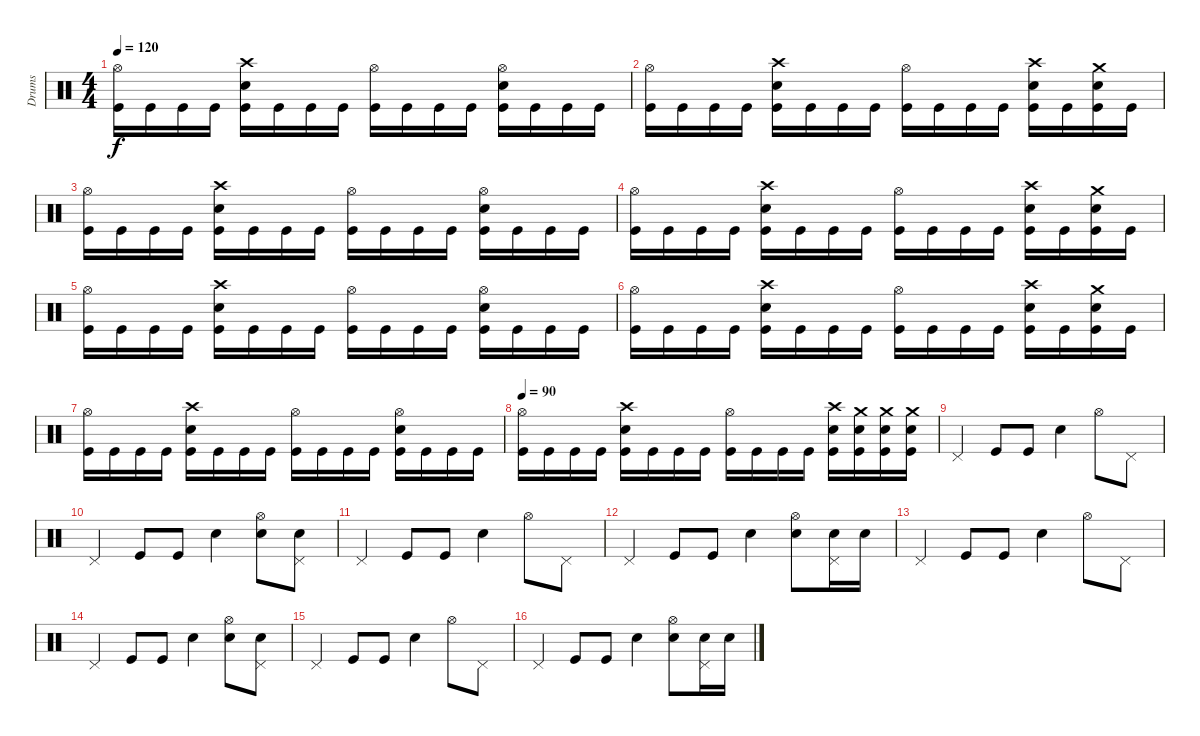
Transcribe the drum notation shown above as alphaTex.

\track ("Drums" "Drums") {instrument percussion}
\staff {score}
\articulation defaults
\ts (4 4)
\tempo 120
\clef neutral
\ks c
("Hi-Hat (open)" "Kick (hit)").16{dy f} "Kick (hit)".16 "Kick (hit)".16 "Kick (hit)".16 ("Electric Snare (hit)" "Crash high (hit)" "Kick (hit)").16 "Kick (hit)".16 "Kick (hit)".16 "Kick (hit)".16 ("Hi-Hat (open)" "Kick (hit)").16 "Kick (hit)".16 "Kick (hit)".16 "Kick (hit)".16 ("Hi-Hat (open)" "Electric Snare (hit)" "Kick (hit)").16 "Kick (hit)".16 "Kick (hit)".16 "Kick (hit)".16 |
("Hi-Hat (open)" "Kick (hit)").16 "Kick (hit)".16 "Kick (hit)".16 "Kick (hit)".16 ("Electric Snare (hit)" "Crash high (hit)" "Kick (hit)").16 "Kick (hit)".16 "Kick (hit)".16 "Kick (hit)".16 ("Hi-Hat (open)" "Kick (hit)").16 "Kick (hit)".16 "Kick (hit)".16 "Kick (hit)".16 ("Electric Snare (hit)" "Crash high (hit)" "Kick (hit)").16 "Kick (hit)".16 ("Electric Snare (hit)" "Crash medium (hit)" "Kick (hit)").16 "Kick (hit)".16 |
("Hi-Hat (open)" "Kick (hit)").16 "Kick (hit)".16 "Kick (hit)".16 "Kick (hit)".16 ("Electric Snare (hit)" "Crash high (hit)" "Kick (hit)").16 "Kick (hit)".16 "Kick (hit)".16 "Kick (hit)".16 ("Hi-Hat (open)" "Kick (hit)").16 "Kick (hit)".16 "Kick (hit)".16 "Kick (hit)".16 ("Hi-Hat (open)" "Electric Snare (hit)" "Kick (hit)").16 "Kick (hit)".16 "Kick (hit)".16 "Kick (hit)".16 |
("Hi-Hat (open)" "Kick (hit)").16 "Kick (hit)".16 "Kick (hit)".16 "Kick (hit)".16 ("Electric Snare (hit)" "Crash high (hit)" "Kick (hit)").16 "Kick (hit)".16 "Kick (hit)".16 "Kick (hit)".16 ("Hi-Hat (open)" "Kick (hit)").16 "Kick (hit)".16 "Kick (hit)".16 "Kick (hit)".16 ("Electric Snare (hit)" "Crash high (hit)" "Kick (hit)").16 "Kick (hit)".16 ("Electric Snare (hit)" "Crash medium (hit)" "Kick (hit)").16 "Kick (hit)".16 |
("Hi-Hat (open)" "Kick (hit)").16 "Kick (hit)".16 "Kick (hit)".16 "Kick (hit)".16 ("Electric Snare (hit)" "Crash high (hit)" "Kick (hit)").16 "Kick (hit)".16 "Kick (hit)".16 "Kick (hit)".16 ("Hi-Hat (open)" "Kick (hit)").16 "Kick (hit)".16 "Kick (hit)".16 "Kick (hit)".16 ("Hi-Hat (open)" "Electric Snare (hit)" "Kick (hit)").16 "Kick (hit)".16 "Kick (hit)".16 "Kick (hit)".16 |
("Hi-Hat (open)" "Kick (hit)").16 "Kick (hit)".16 "Kick (hit)".16 "Kick (hit)".16 ("Electric Snare (hit)" "Crash high (hit)" "Kick (hit)").16 "Kick (hit)".16 "Kick (hit)".16 "Kick (hit)".16 ("Hi-Hat (open)" "Kick (hit)").16 "Kick (hit)".16 "Kick (hit)".16 "Kick (hit)".16 ("Electric Snare (hit)" "Crash high (hit)" "Kick (hit)").16 "Kick (hit)".16 ("Electric Snare (hit)" "Crash medium (hit)" "Kick (hit)").16 "Kick (hit)".16 |
("Hi-Hat (open)" "Kick (hit)").16 "Kick (hit)".16 "Kick (hit)".16 "Kick (hit)".16 ("Electric Snare (hit)" "Crash high (hit)" "Kick (hit)").16 "Kick (hit)".16 "Kick (hit)".16 "Kick (hit)".16 ("Hi-Hat (open)" "Kick (hit)").16 "Kick (hit)".16 "Kick (hit)".16 "Kick (hit)".16 ("Hi-Hat (open)" "Electric Snare (hit)" "Kick (hit)").16 "Kick (hit)".16 "Kick (hit)".16 "Kick (hit)".16 |
\tempo 90
("Hi-Hat (open)" "Kick (hit)").16 "Kick (hit)".16 "Kick (hit)".16 "Kick (hit)".16 ("Electric Snare (hit)" "Crash high (hit)" "Kick (hit)").16 "Kick (hit)".16 "Kick (hit)".16 "Kick (hit)".16 ("Hi-Hat (open)" "Kick (hit)").16 "Kick (hit)".16 "Kick (hit)".16 "Kick (hit)".16 ("Electric Snare (hit)" "Crash high (hit)" "Kick (hit)").16 ("Electric Snare (hit)" "Crash medium (hit)" "Kick (hit)").16 ("Electric Snare (hit)" "Crash medium (hit)" "Kick (hit)").16 ("Electric Snare (hit)" "Crash medium (hit)" "Kick (hit)").16 |
"Pedal Hi-Hat (hit)".4 "Kick (hit)".8 "Kick (hit)".8 "Electric Snare (hit)".4 "Hi-Hat (open)".8 "Pedal Hi-Hat (hit)".8 |
"Pedal Hi-Hat (hit)".4 "Kick (hit)".8 "Kick (hit)".8 "Electric Snare (hit)".4 ("Hi-Hat (open)" "Electric Snare (hit)").8 ("Pedal Hi-Hat (hit)" "Electric Snare (hit)").8 |
"Pedal Hi-Hat (hit)".4 "Kick (hit)".8 "Kick (hit)".8 "Electric Snare (hit)".4 "Hi-Hat (open)".8 "Pedal Hi-Hat (hit)".8 |
"Pedal Hi-Hat (hit)".4 "Kick (hit)".8 "Kick (hit)".8 "Electric Snare (hit)".4 ("Hi-Hat (open)" "Electric Snare (hit)").8 ("Pedal Hi-Hat (hit)" "Electric Snare (hit)").16 "Electric Snare (hit)".16 |
"Pedal Hi-Hat (hit)".4 "Kick (hit)".8 "Kick (hit)".8 "Electric Snare (hit)".4 "Hi-Hat (open)".8 "Pedal Hi-Hat (hit)".8 |
"Pedal Hi-Hat (hit)".4 "Kick (hit)".8 "Kick (hit)".8 "Electric Snare (hit)".4 ("Hi-Hat (open)" "Electric Snare (hit)").8 ("Pedal Hi-Hat (hit)" "Electric Snare (hit)").8 |
"Pedal Hi-Hat (hit)".4 "Kick (hit)".8 "Kick (hit)".8 "Electric Snare (hit)".4 "Hi-Hat (open)".8 "Pedal Hi-Hat (hit)".8 |
"Pedal Hi-Hat (hit)".4 "Kick (hit)".8 "Kick (hit)".8 "Electric Snare (hit)".4 ("Hi-Hat (open)" "Electric Snare (hit)").8 ("Pedal Hi-Hat (hit)" "Electric Snare (hit)").16 "Electric Snare (hit)".16
